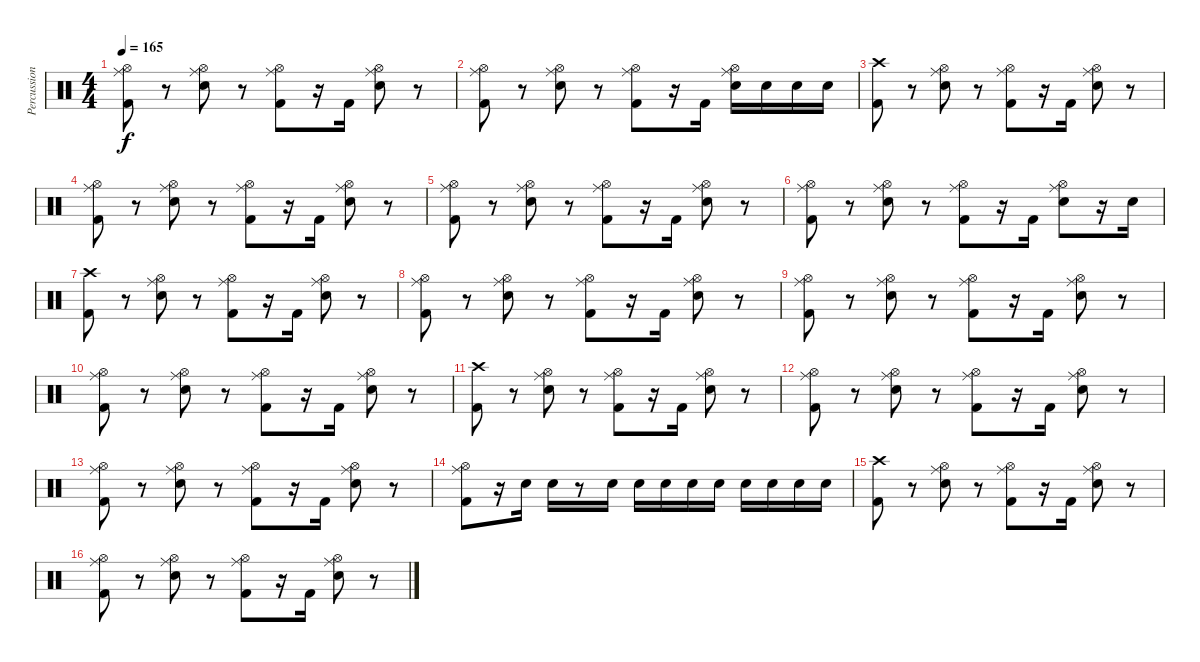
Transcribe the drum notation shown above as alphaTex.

\track ("Percussion" "Percussion") {instrument percussion}
\staff {score}
\articulation defaults
\ts (4 4)
\tempo 165
\clef neutral
\ks c
("Hi-Hat (open)" "Ride (middle)" "Kick (hit) 2").8{dy f} r.8 ("Hi-Hat (open)" "Ride (middle)" "Snare (hit) 2").8 r.8 ("Hi-Hat (open)" "Ride (middle)" "Kick (hit) 2").8 r.16 "Kick (hit) 2".16 ("Hi-Hat (open)" "Ride (middle)" "Snare (hit) 2").8 r.8 |
("Hi-Hat (open)" "Ride (middle)" "Kick (hit) 2").8 r.8 ("Hi-Hat (open)" "Ride (middle)" "Snare (hit) 2").8 r.8 ("Hi-Hat (open)" "Ride (middle)" "Kick (hit) 2").8 r.16 "Kick (hit) 2".16 ("Hi-Hat (open)" "Ride (middle)" "Snare (hit) 2").16 "Snare (hit) 2".16 "Snare (hit) 2".16 "Snare (hit) 2".16 |
("Crash high (hit)" "Kick (hit) 2").8 r.8 ("Hi-Hat (open)" "Ride (middle)" "Snare (hit) 2").8 r.8 ("Hi-Hat (open)" "Ride (middle)" "Kick (hit) 2").8 r.16 "Kick (hit) 2".16 ("Hi-Hat (open)" "Ride (middle)" "Snare (hit) 2").8 r.8 |
("Hi-Hat (open)" "Ride (middle)" "Kick (hit) 2").8 r.8 ("Hi-Hat (open)" "Ride (middle)" "Snare (hit) 2").8 r.8 ("Hi-Hat (open)" "Ride (middle)" "Kick (hit) 2").8 r.16 "Kick (hit) 2".16 ("Hi-Hat (open)" "Ride (middle)" "Snare (hit) 2").8 r.8 |
("Hi-Hat (open)" "Ride (middle)" "Kick (hit) 2").8 r.8 ("Hi-Hat (open)" "Ride (middle)" "Snare (hit) 2").8 r.8 ("Hi-Hat (open)" "Ride (middle)" "Kick (hit) 2").8 r.16 "Kick (hit) 2".16 ("Hi-Hat (open)" "Ride (middle)" "Snare (hit) 2").8 r.8 |
("Hi-Hat (open)" "Ride (middle)" "Kick (hit) 2").8 r.8 ("Hi-Hat (open)" "Ride (middle)" "Snare (hit) 2").8 r.8 ("Hi-Hat (open)" "Ride (middle)" "Kick (hit) 2").8 r.16 "Kick (hit) 2".16 ("Hi-Hat (open)" "Ride (middle)" "Snare (hit) 2").8 r.16 "Snare (hit) 2".16 |
("Crash high (hit)" "Kick (hit) 2").8 r.8 ("Hi-Hat (open)" "Ride (middle)" "Snare (hit) 2").8 r.8 ("Hi-Hat (open)" "Ride (middle)" "Kick (hit) 2").8 r.16 "Kick (hit) 2".16 ("Hi-Hat (open)" "Ride (middle)" "Snare (hit) 2").8 r.8 |
("Hi-Hat (open)" "Ride (middle)" "Kick (hit) 2").8 r.8 ("Hi-Hat (open)" "Ride (middle)" "Snare (hit) 2").8 r.8 ("Hi-Hat (open)" "Ride (middle)" "Kick (hit) 2").8 r.16 "Kick (hit) 2".16 ("Hi-Hat (open)" "Ride (middle)" "Snare (hit) 2").8 r.8 |
("Hi-Hat (open)" "Ride (middle)" "Kick (hit) 2").8 r.8 ("Hi-Hat (open)" "Ride (middle)" "Snare (hit) 2").8 r.8 ("Hi-Hat (open)" "Ride (middle)" "Kick (hit) 2").8 r.16 "Kick (hit) 2".16 ("Hi-Hat (open)" "Ride (middle)" "Snare (hit) 2").8 r.8 |
("Hi-Hat (open)" "Ride (middle)" "Kick (hit) 2").8 r.8 ("Hi-Hat (open)" "Ride (middle)" "Snare (hit) 2").8 r.8 ("Hi-Hat (open)" "Ride (middle)" "Kick (hit) 2").8 r.16 "Kick (hit) 2".16 ("Hi-Hat (open)" "Ride (middle)" "Snare (hit) 2").8 r.8 |
("Crash high (hit)" "Kick (hit) 2").8 r.8 ("Hi-Hat (open)" "Ride (middle)" "Snare (hit) 2").8 r.8 ("Hi-Hat (open)" "Ride (middle)" "Kick (hit) 2").8 r.16 "Kick (hit) 2".16 ("Hi-Hat (open)" "Ride (middle)" "Snare (hit) 2").8 r.8 |
("Hi-Hat (open)" "Ride (middle)" "Kick (hit) 2").8 r.8 ("Hi-Hat (open)" "Ride (middle)" "Snare (hit) 2").8 r.8 ("Hi-Hat (open)" "Ride (middle)" "Kick (hit) 2").8 r.16 "Kick (hit) 2".16 ("Hi-Hat (open)" "Ride (middle)" "Snare (hit) 2").8 r.8 |
("Hi-Hat (open)" "Ride (middle)" "Kick (hit) 2").8 r.8 ("Hi-Hat (open)" "Ride (middle)" "Snare (hit) 2").8 r.8 ("Hi-Hat (open)" "Ride (middle)" "Kick (hit) 2").8 r.16 "Kick (hit) 2".16 ("Hi-Hat (open)" "Ride (middle)" "Snare (hit) 2").8 r.8 |
("Hi-Hat (open)" "Ride (middle)" "Kick (hit) 2").8 r.16 "Snare (hit) 2".16 "Snare (hit) 2".16 r.8 "Snare (hit) 2".16 "Snare (hit) 2".16 "Snare (hit) 2".16 "Snare (hit) 2".16 "Snare (hit) 2".16 "Snare (hit) 2".16 "Snare (hit) 2".16 "Snare (hit) 2".16 "Snare (hit) 2".16 |
("Crash high (hit)" "Kick (hit) 2").8 r.8 ("Hi-Hat (open)" "Ride (middle)" "Snare (hit) 2").8 r.8 ("Hi-Hat (open)" "Ride (middle)" "Kick (hit) 2").8 r.16 "Kick (hit) 2".16 ("Hi-Hat (open)" "Ride (middle)" "Snare (hit) 2").8 r.8 |
("Hi-Hat (open)" "Ride (middle)" "Kick (hit) 2").8 r.8 ("Hi-Hat (open)" "Ride (middle)" "Snare (hit) 2").8 r.8 ("Hi-Hat (open)" "Ride (middle)" "Kick (hit) 2").8 r.16 "Kick (hit) 2".16 ("Hi-Hat (open)" "Ride (middle)" "Snare (hit) 2").8 r.8
